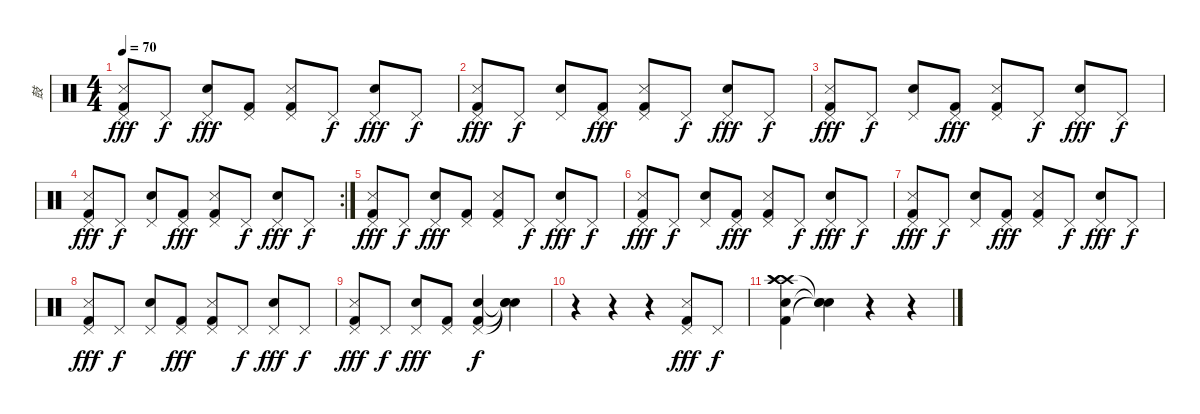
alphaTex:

\track ("鼓" "鼓") {instrument percussion}
\staff {score}
\articulation defaults
\ts (4 4)
\tempo 70
\clef neutral
\ks c
("Snare (side stick) 3" "Pedal Hi-Hat (hit)" "Kick (hit) 2").8{dy fff} "Pedal Hi-Hat (hit)".8{dy f} ("Hand Clap (hit)" "Pedal Hi-Hat (hit)").8{dy fff} ("Pedal Hi-Hat (hit)" "Kick (hit) 2").8 ("Snare (side stick) 3" "Pedal Hi-Hat (hit)" "Kick (hit) 2").8 "Pedal Hi-Hat (hit)".8{dy f} ("Hand Clap (hit)" "Pedal Hi-Hat (hit)").8{dy fff} "Pedal Hi-Hat (hit)".8{dy f} |
("Snare (side stick) 3" "Pedal Hi-Hat (hit)" "Kick (hit) 2").8{dy fff} "Pedal Hi-Hat (hit)".8{dy f} ("Hand Clap (hit)" "Pedal Hi-Hat (hit)").8 ("Pedal Hi-Hat (hit)" "Kick (hit) 2").8{dy fff} ("Snare (side stick) 3" "Pedal Hi-Hat (hit)" "Kick (hit) 2").8 "Pedal Hi-Hat (hit)".8{dy f} ("Hand Clap (hit)" "Pedal Hi-Hat (hit)").8{dy fff} "Pedal Hi-Hat (hit)".8{dy f} |
("Snare (side stick) 3" "Pedal Hi-Hat (hit)" "Kick (hit) 2").8{dy fff} "Pedal Hi-Hat (hit)".8{dy f} ("Hand Clap (hit)" "Pedal Hi-Hat (hit)").8 ("Pedal Hi-Hat (hit)" "Kick (hit) 2").8{dy fff} ("Snare (side stick) 3" "Pedal Hi-Hat (hit)" "Kick (hit) 2").8 "Pedal Hi-Hat (hit)".8{dy f} ("Hand Clap (hit)" "Pedal Hi-Hat (hit)").8{dy fff} "Pedal Hi-Hat (hit)".8{dy f} |
\rc 2
("Snare (side stick) 3" "Pedal Hi-Hat (hit)" "Kick (hit) 2").8{dy fff} "Pedal Hi-Hat (hit)".8{dy f} ("Hand Clap (hit)" "Pedal Hi-Hat (hit)").8 ("Pedal Hi-Hat (hit)" "Kick (hit) 2").8{dy fff} ("Snare (side stick) 3" "Pedal Hi-Hat (hit)" "Kick (hit) 2").8 "Pedal Hi-Hat (hit)".8{dy f} ("Hand Clap (hit)" "Pedal Hi-Hat (hit)").8{dy fff} "Pedal Hi-Hat (hit)".8{dy f} |
("Snare (side stick) 3" "Pedal Hi-Hat (hit)" "Kick (hit) 2").8{dy fff} "Pedal Hi-Hat (hit)".8{dy f} ("Hand Clap (hit)" "Pedal Hi-Hat (hit)").8{dy fff} ("Pedal Hi-Hat (hit)" "Kick (hit) 2").8 ("Snare (side stick) 3" "Pedal Hi-Hat (hit)" "Kick (hit) 2").8 "Pedal Hi-Hat (hit)".8{dy f} ("Hand Clap (hit)" "Pedal Hi-Hat (hit)").8{dy fff} "Pedal Hi-Hat (hit)".8{dy f} |
("Snare (side stick) 3" "Pedal Hi-Hat (hit)" "Kick (hit) 2").8{dy fff} "Pedal Hi-Hat (hit)".8{dy f} ("Hand Clap (hit)" "Pedal Hi-Hat (hit)").8 ("Pedal Hi-Hat (hit)" "Kick (hit) 2").8{dy fff} ("Snare (side stick) 3" "Pedal Hi-Hat (hit)" "Kick (hit) 2").8 "Pedal Hi-Hat (hit)".8{dy f} ("Hand Clap (hit)" "Pedal Hi-Hat (hit)").8{dy fff} "Pedal Hi-Hat (hit)".8{dy f} |
("Snare (side stick) 3" "Pedal Hi-Hat (hit)" "Kick (hit) 2").8{dy fff} "Pedal Hi-Hat (hit)".8{dy f} ("Hand Clap (hit)" "Pedal Hi-Hat (hit)").8 ("Pedal Hi-Hat (hit)" "Kick (hit) 2").8{dy fff} ("Snare (side stick) 3" "Pedal Hi-Hat (hit)" "Kick (hit) 2").8 "Pedal Hi-Hat (hit)".8{dy f} ("Hand Clap (hit)" "Pedal Hi-Hat (hit)").8{dy fff} "Pedal Hi-Hat (hit)".8{dy f} |
("Snare (side stick) 3" "Pedal Hi-Hat (hit)" "Kick (hit) 2").8{dy fff} "Pedal Hi-Hat (hit)".8{dy f} ("Hand Clap (hit)" "Pedal Hi-Hat (hit)").8 ("Pedal Hi-Hat (hit)" "Kick (hit) 2").8{dy fff} ("Snare (side stick) 3" "Pedal Hi-Hat (hit)" "Kick (hit) 2").8 "Pedal Hi-Hat (hit)".8{dy f} ("Hand Clap (hit)" "Pedal Hi-Hat (hit)").8{dy fff} "Pedal Hi-Hat (hit)".8{dy f} |
("Snare (side stick) 3" "Pedal Hi-Hat (hit)" "Kick (hit) 2").8{dy fff} "Pedal Hi-Hat (hit)".8{dy f} ("Hand Clap (hit)" "Pedal Hi-Hat (hit)").8{dy fff} ("Pedal Hi-Hat (hit)" "Kick (hit) 2").8 ("Hand Clap (hit)" "Pedal Hi-Hat (hit)" "Kick (hit) 2").4{dy f} ("Snare (hit)"{t} "Snare (hit)"{t} "Snare (hit)"{t}).4 |
r.4 r.4 r.4 ("Snare (side stick) 3" "Pedal Hi-Hat (hit)" "Kick (hit) 2").8{dy fff} "Pedal Hi-Hat (hit)".8{dy f} |
("Crash high (hit)" "Kick (hit) 2" "Snare (hit) 2" "Crash high (hit)" "Crash high (hit)").4 ("Snare (hit)"{t} "Snare (hit)"{t} "Snare (hit)"{t}).4 r.4 r.4
